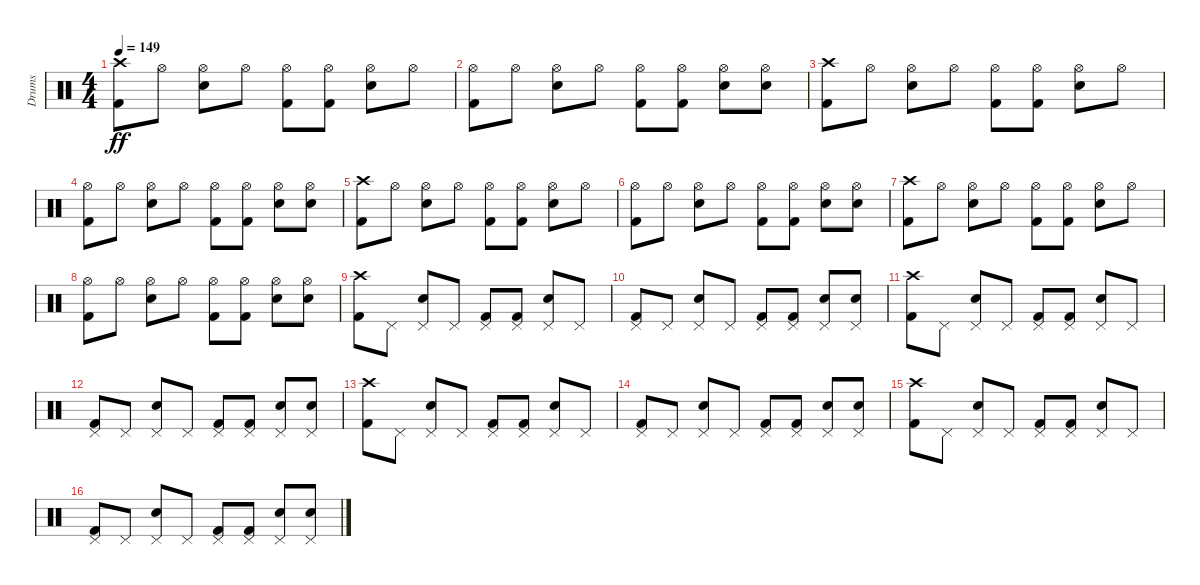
\track ("Drums" "Drums") {instrument percussion}
\staff {score}
\articulation defaults
\ts (4 4)
\tempo 149
\clef neutral
\ks c
("Kick (hit) 2" "Crash high (hit)").8{dy ff} "Hi-Hat (open)".8 ("Snare (hit) 2" "Hi-Hat (open)").8 "Hi-Hat (open)".8 ("Kick (hit) 2" "Hi-Hat (open)").8 ("Kick (hit) 2" "Hi-Hat (open)").8 ("Snare (hit) 2" "Hi-Hat (open)").8 "Hi-Hat (open)".8 |
("Kick (hit) 2" "Hi-Hat (open)").8 "Hi-Hat (open)".8 ("Snare (hit) 2" "Hi-Hat (open)").8 "Hi-Hat (open)".8 ("Kick (hit) 2" "Hi-Hat (open)").8 ("Kick (hit) 2" "Hi-Hat (open)").8 ("Snare (hit) 2" "Hi-Hat (open)").8 ("Snare (hit) 2" "Hi-Hat (open)").8 |
("Kick (hit) 2" "Crash high (hit)").8 "Hi-Hat (open)".8 ("Snare (hit) 2" "Hi-Hat (open)").8 "Hi-Hat (open)".8 ("Kick (hit) 2" "Hi-Hat (open)").8 ("Kick (hit) 2" "Hi-Hat (open)").8 ("Snare (hit) 2" "Hi-Hat (open)").8 "Hi-Hat (open)".8 |
("Kick (hit) 2" "Hi-Hat (open)").8 "Hi-Hat (open)".8 ("Snare (hit) 2" "Hi-Hat (open)").8 "Hi-Hat (open)".8 ("Kick (hit) 2" "Hi-Hat (open)").8 ("Kick (hit) 2" "Hi-Hat (open)").8 ("Snare (hit) 2" "Hi-Hat (open)").8 ("Snare (hit) 2" "Hi-Hat (open)").8 |
("Kick (hit) 2" "Crash high (hit)").8 "Hi-Hat (open)".8 ("Snare (hit) 2" "Hi-Hat (open)").8 "Hi-Hat (open)".8 ("Kick (hit) 2" "Hi-Hat (open)").8 ("Kick (hit) 2" "Hi-Hat (open)").8 ("Snare (hit) 2" "Hi-Hat (open)").8 "Hi-Hat (open)".8 |
("Kick (hit) 2" "Hi-Hat (open)").8 "Hi-Hat (open)".8 ("Snare (hit) 2" "Hi-Hat (open)").8 "Hi-Hat (open)".8 ("Kick (hit) 2" "Hi-Hat (open)").8 ("Kick (hit) 2" "Hi-Hat (open)").8 ("Snare (hit) 2" "Hi-Hat (open)").8 ("Snare (hit) 2" "Hi-Hat (open)").8 |
("Kick (hit) 2" "Crash high (hit)").8 "Hi-Hat (open)".8 ("Snare (hit) 2" "Hi-Hat (open)").8 "Hi-Hat (open)".8 ("Kick (hit) 2" "Hi-Hat (open)").8 ("Kick (hit) 2" "Hi-Hat (open)").8 ("Snare (hit) 2" "Hi-Hat (open)").8 "Hi-Hat (open)".8 |
("Kick (hit) 2" "Hi-Hat (open)").8 "Hi-Hat (open)".8 ("Snare (hit) 2" "Hi-Hat (open)").8 "Hi-Hat (open)".8 ("Kick (hit) 2" "Hi-Hat (open)").8 ("Kick (hit) 2" "Hi-Hat (open)").8 ("Snare (hit) 2" "Hi-Hat (open)").8 ("Snare (hit) 2" "Hi-Hat (open)").8 |
("Kick (hit) 2" "Crash high (hit)").8 "Pedal Hi-Hat (hit)".8 ("Snare (hit) 2" "Pedal Hi-Hat (hit)").8 "Pedal Hi-Hat (hit)".8 ("Kick (hit) 2" "Pedal Hi-Hat (hit)").8 ("Kick (hit) 2" "Pedal Hi-Hat (hit)").8 ("Snare (hit) 2" "Pedal Hi-Hat (hit)").8 "Pedal Hi-Hat (hit)".8 |
("Kick (hit) 2" "Pedal Hi-Hat (hit)").8 "Pedal Hi-Hat (hit)".8 ("Snare (hit) 2" "Pedal Hi-Hat (hit)").8 "Pedal Hi-Hat (hit)".8 ("Kick (hit) 2" "Pedal Hi-Hat (hit)").8 ("Kick (hit) 2" "Pedal Hi-Hat (hit)").8 ("Snare (hit) 2" "Pedal Hi-Hat (hit)").8 ("Snare (hit) 2" "Pedal Hi-Hat (hit)").8 |
("Kick (hit) 2" "Crash high (hit)").8 "Pedal Hi-Hat (hit)".8 ("Snare (hit) 2" "Pedal Hi-Hat (hit)").8 "Pedal Hi-Hat (hit)".8 ("Kick (hit) 2" "Pedal Hi-Hat (hit)").8 ("Kick (hit) 2" "Pedal Hi-Hat (hit)").8 ("Snare (hit) 2" "Pedal Hi-Hat (hit)").8 "Pedal Hi-Hat (hit)".8 |
("Kick (hit) 2" "Pedal Hi-Hat (hit)").8 "Pedal Hi-Hat (hit)".8 ("Snare (hit) 2" "Pedal Hi-Hat (hit)").8 "Pedal Hi-Hat (hit)".8 ("Kick (hit) 2" "Pedal Hi-Hat (hit)").8 ("Kick (hit) 2" "Pedal Hi-Hat (hit)").8 ("Snare (hit) 2" "Pedal Hi-Hat (hit)").8 ("Snare (hit) 2" "Pedal Hi-Hat (hit)").8 |
("Kick (hit) 2" "Crash high (hit)").8 "Pedal Hi-Hat (hit)".8 ("Snare (hit) 2" "Pedal Hi-Hat (hit)").8 "Pedal Hi-Hat (hit)".8 ("Kick (hit) 2" "Pedal Hi-Hat (hit)").8 ("Kick (hit) 2" "Pedal Hi-Hat (hit)").8 ("Snare (hit) 2" "Pedal Hi-Hat (hit)").8 "Pedal Hi-Hat (hit)".8 |
("Kick (hit) 2" "Pedal Hi-Hat (hit)").8 "Pedal Hi-Hat (hit)".8 ("Snare (hit) 2" "Pedal Hi-Hat (hit)").8 "Pedal Hi-Hat (hit)".8 ("Kick (hit) 2" "Pedal Hi-Hat (hit)").8 ("Kick (hit) 2" "Pedal Hi-Hat (hit)").8 ("Snare (hit) 2" "Pedal Hi-Hat (hit)").8 ("Snare (hit) 2" "Pedal Hi-Hat (hit)").8 |
("Kick (hit) 2" "Crash high (hit)").8 "Pedal Hi-Hat (hit)".8 ("Snare (hit) 2" "Pedal Hi-Hat (hit)").8 "Pedal Hi-Hat (hit)".8 ("Kick (hit) 2" "Pedal Hi-Hat (hit)").8 ("Kick (hit) 2" "Pedal Hi-Hat (hit)").8 ("Snare (hit) 2" "Pedal Hi-Hat (hit)").8 "Pedal Hi-Hat (hit)".8 |
("Kick (hit) 2" "Pedal Hi-Hat (hit)").8 "Pedal Hi-Hat (hit)".8 ("Snare (hit) 2" "Pedal Hi-Hat (hit)").8 "Pedal Hi-Hat (hit)".8 ("Kick (hit) 2" "Pedal Hi-Hat (hit)").8 ("Kick (hit) 2" "Pedal Hi-Hat (hit)").8 ("Snare (hit) 2" "Pedal Hi-Hat (hit)").8 ("Snare (hit) 2" "Pedal Hi-Hat (hit)").8
